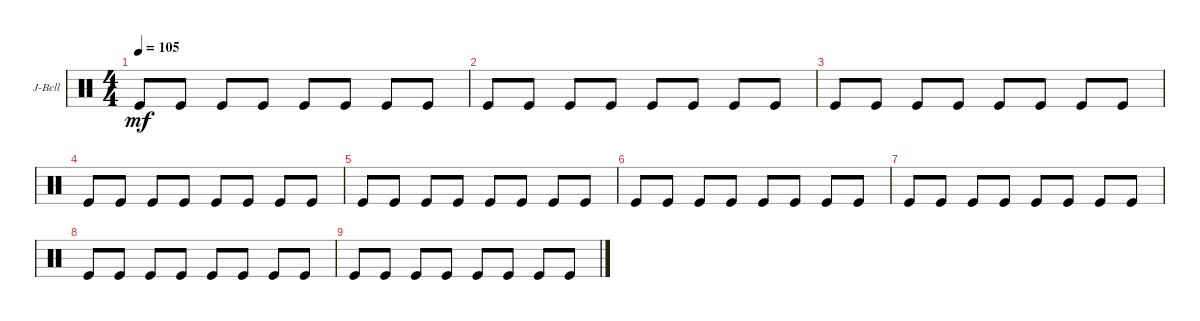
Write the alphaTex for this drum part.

\bracketExtendMode groupsimilarinstruments
\firstSystemTrackNameOrientation horizontal
\otherSystemsTrackNameOrientation horizontal
\track ("Jingle Bell" "J-Bell") {instrument percussion}
\staff {score}
\articulation defaults
\ts (4 4)
\tempo 105
\clef neutral
\scale
0.333333
\ks c "Kick (hit)".8{dy mf} "Kick (hit)".8 "Kick (hit)".8 "Kick (hit)".8 "Kick (hit)".8 "Kick (hit)".8 "Kick (hit)".8 "Kick (hit)".8
|
\scale
0.333333 "Kick (hit)".8 "Kick (hit)".8 "Kick (hit)".8 "Kick (hit)".8 "Kick (hit)".8 "Kick (hit)".8 "Kick (hit)".8 "Kick (hit)".8 |
\scale
0.333333 "Kick (hit)".8 "Kick (hit)".8 "Kick (hit)".8 "Kick (hit)".8 "Kick (hit)".8 "Kick (hit)".8 "Kick (hit)".8 "Kick (hit)".8 |
\scale
0.333333 "Kick (hit)".8 "Kick (hit)".8 "Kick (hit)".8 "Kick (hit)".8 "Kick (hit)".8 "Kick (hit)".8 "Kick (hit)".8 "Kick (hit)".8 |
\scale
0.333333 "Kick (hit)".8 "Kick (hit)".8 "Kick (hit)".8 "Kick (hit)".8 "Kick (hit)".8 "Kick (hit)".8 "Kick (hit)".8 "Kick (hit)".8 |
\scale
0.333333 "Kick (hit)".8 "Kick (hit)".8 "Kick (hit)".8 "Kick (hit)".8 "Kick (hit)".8 "Kick (hit)".8 "Kick (hit)".8 "Kick (hit)".8 |
\scale
0.333333 "Kick (hit)".8 "Kick (hit)".8 "Kick (hit)".8 "Kick (hit)".8 "Kick (hit)".8 "Kick (hit)".8 "Kick (hit)".8 "Kick (hit)".8 |
\scale
0.333333 "Kick (hit)".8 "Kick (hit)".8 "Kick (hit)".8 "Kick (hit)".8 "Kick (hit)".8 "Kick (hit)".8 "Kick (hit)".8 "Kick (hit)".8 |
\scale
0.333333 "Kick (hit)".8 "Kick (hit)".8 "Kick (hit)".8 "Kick (hit)".8 "Kick (hit)".8 "Kick (hit)".8 "Kick (hit)".8 "Kick (hit)".8 |
\scale
0.333333
